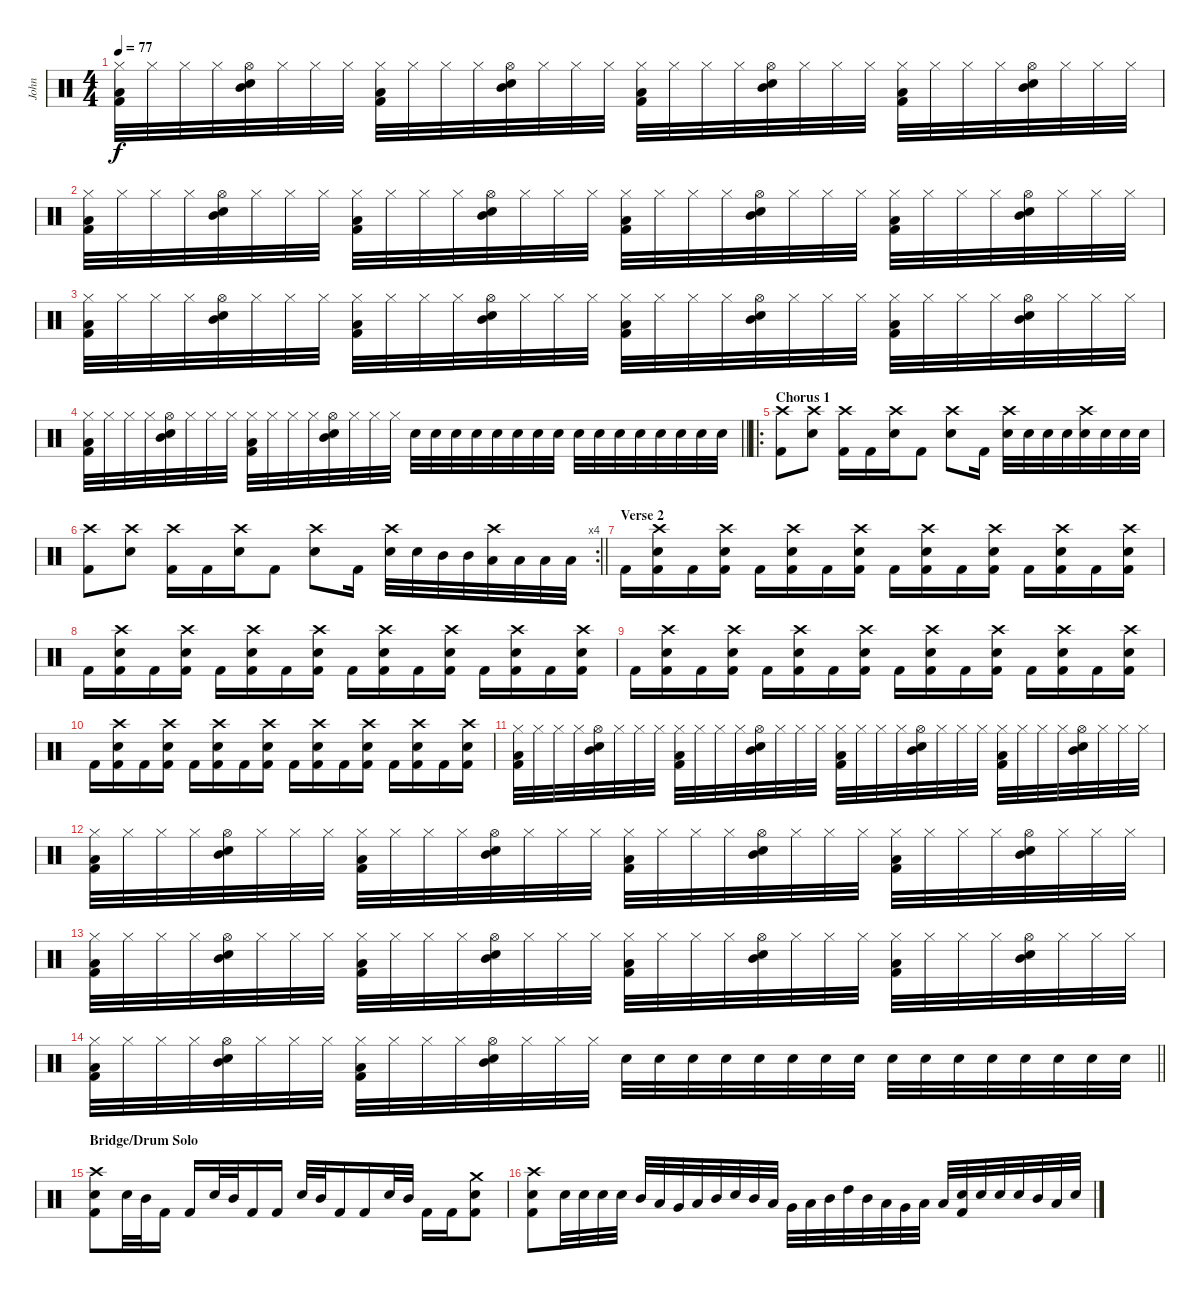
\track ("John" "John") {instrument percussion}
\staff {score}
\articulation defaults
\ts (4 4)
\tempo 77
\clef neutral
\ks c
("Hi-Hat (closed)" "Low Floor Tom (hit)" "Kick (hit) 2").32{dy f} "Hi-Hat (closed)".32 "Hi-Hat (closed)".32 "Hi-Hat (closed)".32 ("Hi-Hat (open)" "Mid Tom (hit)" "Electric Snare (hit)").32 "Hi-Hat (closed)".32 "Hi-Hat (closed)".32 "Hi-Hat (closed)".32 ("Hi-Hat (closed)" "Low Floor Tom (hit)" "Kick (hit) 2").32 "Hi-Hat (closed)".32 "Hi-Hat (closed)".32 "Hi-Hat (closed)".32 ("Hi-Hat (open)" "Mid Tom (hit)" "Electric Snare (hit)").32 "Hi-Hat (closed)".32 "Hi-Hat (closed)".32 "Hi-Hat (closed)".32 ("Hi-Hat (closed)" "Low Floor Tom (hit)" "Kick (hit) 2").32 "Hi-Hat (closed)".32 "Hi-Hat (closed)".32 "Hi-Hat (closed)".32 ("Hi-Hat (open)" "Mid Tom (hit)" "Electric Snare (hit)").32 "Hi-Hat (closed)".32 "Hi-Hat (closed)".32 "Hi-Hat (closed)".32 ("Hi-Hat (closed)" "Low Floor Tom (hit)" "Kick (hit) 2").32 "Hi-Hat (closed)".32 "Hi-Hat (closed)".32 "Hi-Hat (closed)".32 ("Hi-Hat (open)" "Mid Tom (hit)" "Electric Snare (hit)").32 "Hi-Hat (closed)".32 "Hi-Hat (closed)".32 "Hi-Hat (closed)".32 |
("Hi-Hat (closed)" "Low Floor Tom (hit)" "Kick (hit) 2").32 "Hi-Hat (closed)".32 "Hi-Hat (closed)".32 "Hi-Hat (closed)".32 ("Hi-Hat (open)" "Mid Tom (hit)" "Electric Snare (hit)").32 "Hi-Hat (closed)".32 "Hi-Hat (closed)".32 "Hi-Hat (closed)".32 ("Hi-Hat (closed)" "Low Floor Tom (hit)" "Kick (hit) 2").32 "Hi-Hat (closed)".32 "Hi-Hat (closed)".32 "Hi-Hat (closed)".32 ("Hi-Hat (open)" "Mid Tom (hit)" "Electric Snare (hit)").32 "Hi-Hat (closed)".32 "Hi-Hat (closed)".32 "Hi-Hat (closed)".32 ("Hi-Hat (closed)" "Low Floor Tom (hit)" "Kick (hit) 2").32 "Hi-Hat (closed)".32 "Hi-Hat (closed)".32 "Hi-Hat (closed)".32 ("Hi-Hat (open)" "Mid Tom (hit)" "Electric Snare (hit)").32 "Hi-Hat (closed)".32 "Hi-Hat (closed)".32 "Hi-Hat (closed)".32 ("Hi-Hat (closed)" "Low Floor Tom (hit)" "Kick (hit) 2").32 "Hi-Hat (closed)".32 "Hi-Hat (closed)".32 "Hi-Hat (closed)".32 ("Hi-Hat (open)" "Mid Tom (hit)" "Electric Snare (hit)").32 "Hi-Hat (closed)".32 "Hi-Hat (closed)".32 "Hi-Hat (closed)".32 |
("Hi-Hat (closed)" "Low Floor Tom (hit)" "Kick (hit) 2").32 "Hi-Hat (closed)".32 "Hi-Hat (closed)".32 "Hi-Hat (closed)".32 ("Hi-Hat (open)" "Mid Tom (hit)" "Electric Snare (hit)").32 "Hi-Hat (closed)".32 "Hi-Hat (closed)".32 "Hi-Hat (closed)".32 ("Hi-Hat (closed)" "Low Floor Tom (hit)" "Kick (hit) 2").32 "Hi-Hat (closed)".32 "Hi-Hat (closed)".32 "Hi-Hat (closed)".32 ("Hi-Hat (open)" "Mid Tom (hit)" "Electric Snare (hit)").32 "Hi-Hat (closed)".32 "Hi-Hat (closed)".32 "Hi-Hat (closed)".32 ("Hi-Hat (closed)" "Low Floor Tom (hit)" "Kick (hit) 2").32 "Hi-Hat (closed)".32 "Hi-Hat (closed)".32 "Hi-Hat (closed)".32 ("Hi-Hat (open)" "Mid Tom (hit)" "Electric Snare (hit)").32 "Hi-Hat (closed)".32 "Hi-Hat (closed)".32 "Hi-Hat (closed)".32 ("Hi-Hat (closed)" "Low Floor Tom (hit)" "Kick (hit) 2").32 "Hi-Hat (closed)".32 "Hi-Hat (closed)".32 "Hi-Hat (closed)".32 ("Hi-Hat (open)" "Mid Tom (hit)" "Electric Snare (hit)").32 "Hi-Hat (closed)".32 "Hi-Hat (closed)".32 "Hi-Hat (closed)".32 |
\barLineRight lightlight
("Hi-Hat (closed)" "Low Floor Tom (hit)" "Kick (hit) 2").32 "Hi-Hat (closed)".32 "Hi-Hat (closed)".32 "Hi-Hat (closed)".32 ("Hi-Hat (open)" "Mid Tom (hit)" "Electric Snare (hit)").32 "Hi-Hat (closed)".32 "Hi-Hat (closed)".32 "Hi-Hat (closed)".32 ("Hi-Hat (closed)" "Low Floor Tom (hit)" "Kick (hit) 2").32 "Hi-Hat (closed)".32 "Hi-Hat (closed)".32 "Hi-Hat (closed)".32 ("Hi-Hat (open)" "Mid Tom (hit)" "Electric Snare (hit)").32 "Hi-Hat (closed)".32 "Hi-Hat (closed)".32 "Hi-Hat (closed)".32 "Electric Snare (hit)".32 "Electric Snare (hit)".32 "Electric Snare (hit)".32 "Electric Snare (hit)".32 "Electric Snare (hit)".32 "Electric Snare (hit)".32 "Electric Snare (hit)".32 "Electric Snare (hit)".32 "Electric Snare (hit)".32 "Electric Snare (hit)".32 "Electric Snare (hit)".32 "Electric Snare (hit)".32 "Electric Snare (hit)".32 "Electric Snare (hit)".32 "Electric Snare (hit)".32 "Electric Snare (hit)".32 |
\ro
\section ("" "Chorus 1")
("Crash high (hit)" "Kick (hit) 2").8 ("Crash high (hit)" "Electric Snare (hit)").8 ("Crash high (hit)" "Kick (hit) 2").16 "Kick (hit) 2".16 ("Crash high (hit)" "Electric Snare (hit)").16 "Kick (hit) 2".8 ("Crash high (hit)" "Electric Snare (hit)").8 "Kick (hit) 2".16 ("Crash high (hit)" "Electric Snare (hit)").32 "Electric Snare (hit)".32 "Electric Snare (hit)".32 "Electric Snare (hit)".32 ("Crash high (hit)" "Electric Snare (hit)").32 "Electric Snare (hit)".32 "Electric Snare (hit)".32 "Electric Snare (hit)".32 |
\rc 4
\barLineRight lightlight
("Crash high (hit)" "Kick (hit) 2").8 ("Crash high (hit)" "Electric Snare (hit)").8 ("Crash high (hit)" "Kick (hit) 2").16 "Kick (hit) 2".16 ("Crash high (hit)" "Electric Snare (hit)").16 "Kick (hit) 2".8 ("Crash high (hit)" "Electric Snare (hit)").8 "Kick (hit) 2".16 ("Crash high (hit)" "Electric Snare (hit)").32 "Electric Snare (hit)".32 "Mid Tom (hit)".32 "Mid Tom (hit)".32 ("Crash high (hit)" "Low Tom (hit)").32 "Low Tom (hit)".32 "Low Floor Tom (hit)".32 "Low Floor Tom (hit)".32 |
\section ("" "Verse 2")
"Kick (hit) 2".16 ("Crash high (hit)" "Electric Snare (hit)" "Kick (hit) 2").16 "Kick (hit) 2".16 ("Crash high (hit)" "Electric Snare (hit)" "Kick (hit) 2").16 "Kick (hit) 2".16 ("Crash high (hit)" "Electric Snare (hit)" "Kick (hit) 2").16 "Kick (hit) 2".16 ("Crash high (hit)" "Electric Snare (hit)" "Kick (hit) 2").16 "Kick (hit) 2".16 ("Crash high (hit)" "Electric Snare (hit)" "Kick (hit) 2").16 "Kick (hit) 2".16 ("Crash high (hit)" "Electric Snare (hit)" "Kick (hit) 2").16 "Kick (hit) 2".16 ("Crash high (hit)" "Electric Snare (hit)" "Kick (hit) 2").16 "Kick (hit) 2".16 ("Crash high (hit)" "Electric Snare (hit)" "Kick (hit) 2").16 |
"Kick (hit) 2".16 ("Crash high (hit)" "Electric Snare (hit)" "Kick (hit) 2").16 "Kick (hit) 2".16 ("Crash high (hit)" "Electric Snare (hit)" "Kick (hit) 2").16 "Kick (hit) 2".16 ("Crash high (hit)" "Electric Snare (hit)" "Kick (hit) 2").16 "Kick (hit) 2".16 ("Crash high (hit)" "Electric Snare (hit)" "Kick (hit) 2").16 "Kick (hit) 2".16 ("Crash high (hit)" "Electric Snare (hit)" "Kick (hit) 2").16 "Kick (hit) 2".16 ("Crash high (hit)" "Electric Snare (hit)" "Kick (hit) 2").16 "Kick (hit) 2".16 ("Crash high (hit)" "Electric Snare (hit)" "Kick (hit) 2").16 "Kick (hit) 2".16 ("Crash high (hit)" "Electric Snare (hit)" "Kick (hit) 2").16 |
"Kick (hit) 2".16 ("Crash high (hit)" "Electric Snare (hit)" "Kick (hit) 2").16 "Kick (hit) 2".16 ("Crash high (hit)" "Electric Snare (hit)" "Kick (hit) 2").16 "Kick (hit) 2".16 ("Crash high (hit)" "Electric Snare (hit)" "Kick (hit) 2").16 "Kick (hit) 2".16 ("Crash high (hit)" "Electric Snare (hit)" "Kick (hit) 2").16 "Kick (hit) 2".16 ("Crash high (hit)" "Electric Snare (hit)" "Kick (hit) 2").16 "Kick (hit) 2".16 ("Crash high (hit)" "Electric Snare (hit)" "Kick (hit) 2").16 "Kick (hit) 2".16 ("Crash high (hit)" "Electric Snare (hit)" "Kick (hit) 2").16 "Kick (hit) 2".16 ("Crash high (hit)" "Electric Snare (hit)" "Kick (hit) 2").16 |
"Kick (hit) 2".16 ("Crash high (hit)" "Electric Snare (hit)" "Kick (hit) 2").16 "Kick (hit) 2".16 ("Crash high (hit)" "Electric Snare (hit)" "Kick (hit) 2").16 "Kick (hit) 2".16 ("Crash high (hit)" "Electric Snare (hit)" "Kick (hit) 2").16 "Kick (hit) 2".16 ("Crash high (hit)" "Electric Snare (hit)" "Kick (hit) 2").16 "Kick (hit) 2".16 ("Crash high (hit)" "Electric Snare (hit)" "Kick (hit) 2").16 "Kick (hit) 2".16 ("Crash high (hit)" "Electric Snare (hit)" "Kick (hit) 2").16 "Kick (hit) 2".16 ("Crash high (hit)" "Electric Snare (hit)" "Kick (hit) 2").16 "Kick (hit) 2".16 ("Crash high (hit)" "Electric Snare (hit)" "Kick (hit) 2").16 |
("Hi-Hat (closed)" "Low Floor Tom (hit)" "Kick (hit) 2").32 "Hi-Hat (closed)".32 "Hi-Hat (closed)".32 "Hi-Hat (closed)".32 ("Hi-Hat (open)" "Mid Tom (hit)" "Electric Snare (hit)").32 "Hi-Hat (closed)".32 "Hi-Hat (closed)".32 "Hi-Hat (closed)".32 ("Hi-Hat (closed)" "Low Floor Tom (hit)" "Kick (hit) 2").32 "Hi-Hat (closed)".32 "Hi-Hat (closed)".32 "Hi-Hat (closed)".32 ("Hi-Hat (open)" "Mid Tom (hit)" "Electric Snare (hit)").32 "Hi-Hat (closed)".32 "Hi-Hat (closed)".32 "Hi-Hat (closed)".32 ("Hi-Hat (closed)" "Low Floor Tom (hit)" "Kick (hit) 2").32 "Hi-Hat (closed)".32 "Hi-Hat (closed)".32 "Hi-Hat (closed)".32 ("Hi-Hat (open)" "Mid Tom (hit)" "Electric Snare (hit)").32 "Hi-Hat (closed)".32 "Hi-Hat (closed)".32 "Hi-Hat (closed)".32 ("Hi-Hat (closed)" "Low Floor Tom (hit)" "Kick (hit) 2").32 "Hi-Hat (closed)".32 "Hi-Hat (closed)".32 "Hi-Hat (closed)".32 ("Hi-Hat (open)" "Mid Tom (hit)" "Electric Snare (hit)").32 "Hi-Hat (closed)".32 "Hi-Hat (closed)".32 "Hi-Hat (closed)".32 |
("Hi-Hat (closed)" "Low Floor Tom (hit)" "Kick (hit) 2").32 "Hi-Hat (closed)".32 "Hi-Hat (closed)".32 "Hi-Hat (closed)".32 ("Hi-Hat (open)" "Mid Tom (hit)" "Electric Snare (hit)").32 "Hi-Hat (closed)".32 "Hi-Hat (closed)".32 "Hi-Hat (closed)".32 ("Hi-Hat (closed)" "Low Floor Tom (hit)" "Kick (hit) 2").32 "Hi-Hat (closed)".32 "Hi-Hat (closed)".32 "Hi-Hat (closed)".32 ("Hi-Hat (open)" "Mid Tom (hit)" "Electric Snare (hit)").32 "Hi-Hat (closed)".32 "Hi-Hat (closed)".32 "Hi-Hat (closed)".32 ("Hi-Hat (closed)" "Low Floor Tom (hit)" "Kick (hit) 2").32 "Hi-Hat (closed)".32 "Hi-Hat (closed)".32 "Hi-Hat (closed)".32 ("Hi-Hat (open)" "Mid Tom (hit)" "Electric Snare (hit)").32 "Hi-Hat (closed)".32 "Hi-Hat (closed)".32 "Hi-Hat (closed)".32 ("Hi-Hat (closed)" "Low Floor Tom (hit)" "Kick (hit) 2").32 "Hi-Hat (closed)".32 "Hi-Hat (closed)".32 "Hi-Hat (closed)".32 ("Hi-Hat (open)" "Mid Tom (hit)" "Electric Snare (hit)").32 "Hi-Hat (closed)".32 "Hi-Hat (closed)".32 "Hi-Hat (closed)".32 |
("Hi-Hat (closed)" "Low Floor Tom (hit)" "Kick (hit) 2").32 "Hi-Hat (closed)".32 "Hi-Hat (closed)".32 "Hi-Hat (closed)".32 ("Hi-Hat (open)" "Mid Tom (hit)" "Electric Snare (hit)").32 "Hi-Hat (closed)".32 "Hi-Hat (closed)".32 "Hi-Hat (closed)".32 ("Hi-Hat (closed)" "Low Floor Tom (hit)" "Kick (hit) 2").32 "Hi-Hat (closed)".32 "Hi-Hat (closed)".32 "Hi-Hat (closed)".32 ("Hi-Hat (open)" "Mid Tom (hit)" "Electric Snare (hit)").32 "Hi-Hat (closed)".32 "Hi-Hat (closed)".32 "Hi-Hat (closed)".32 ("Hi-Hat (closed)" "Low Floor Tom (hit)" "Kick (hit) 2").32 "Hi-Hat (closed)".32 "Hi-Hat (closed)".32 "Hi-Hat (closed)".32 ("Hi-Hat (open)" "Mid Tom (hit)" "Electric Snare (hit)").32 "Hi-Hat (closed)".32 "Hi-Hat (closed)".32 "Hi-Hat (closed)".32 ("Hi-Hat (closed)" "Low Floor Tom (hit)" "Kick (hit) 2").32 "Hi-Hat (closed)".32 "Hi-Hat (closed)".32 "Hi-Hat (closed)".32 ("Hi-Hat (open)" "Mid Tom (hit)" "Electric Snare (hit)").32 "Hi-Hat (closed)".32 "Hi-Hat (closed)".32 "Hi-Hat (closed)".32 |
\barLineRight lightlight
("Hi-Hat (closed)" "Low Floor Tom (hit)" "Kick (hit) 2").32 "Hi-Hat (closed)".32 "Hi-Hat (closed)".32 "Hi-Hat (closed)".32 ("Hi-Hat (open)" "Mid Tom (hit)" "Electric Snare (hit)").32 "Hi-Hat (closed)".32 "Hi-Hat (closed)".32 "Hi-Hat (closed)".32 ("Hi-Hat (closed)" "Low Floor Tom (hit)" "Kick (hit) 2").32 "Hi-Hat (closed)".32 "Hi-Hat (closed)".32 "Hi-Hat (closed)".32 ("Hi-Hat (open)" "Mid Tom (hit)" "Electric Snare (hit)").32 "Hi-Hat (closed)".32 "Hi-Hat (closed)".32 "Hi-Hat (closed)".32 "Electric Snare (hit)".32 "Electric Snare (hit)".32 "Electric Snare (hit)".32 "Electric Snare (hit)".32 "Electric Snare (hit)".32 "Electric Snare (hit)".32 "Electric Snare (hit)".32 "Electric Snare (hit)".32 "Electric Snare (hit)".32 "Electric Snare (hit)".32 "Electric Snare (hit)".32 "Electric Snare (hit)".32 "Electric Snare (hit)".32 "Electric Snare (hit)".32 "Electric Snare (hit)".32 "Electric Snare (hit)".32 |
\section ("" "Bridge/Drum Solo")
("Crash high (hit)" "Electric Snare (hit)" "Kick (hit) 2").8 "Electric Snare (hit)".32 "Mid Tom (hit)".32 "Kick (hit) 2".16 "Kick (hit) 2".16 "Electric Snare (hit)".32 "Mid Tom (hit)".32 "Kick (hit) 2".16 "Kick (hit) 2".16 "Electric Snare (hit)".32 "Mid Tom (hit)".32 "Kick (hit) 2".16 "Kick (hit) 2".16 "Electric Snare (hit)".32 "Mid Tom (hit)".32 "Kick (hit) 2".16 "Kick (hit) 2".16 ("Crash medium (hit)" "Electric Snare (hit)" "Kick (hit) 2").8 |
("Crash high (hit)" "Electric Snare (hit)" "Kick (hit) 2").8 "Electric Snare (hit)".32 "Electric Snare (hit)".32 "Electric Snare (hit)".32 "Electric Snare (hit)".32 "Mid Tom (hit)".32 "Low Tom (hit)".32 "Very Low Tom (hit)".32 "Low Tom (hit)".32 "Mid Tom (hit)".32 "Electric Snare (hit)".32 "Mid Tom (hit)".32 "Low Tom (hit)".32 "Very Low Tom (hit)".32 "Low Tom (hit)".32 "Mid Tom (hit)".32 "High Tom (hit)".32 "Mid Tom (hit)".32 "Low Tom (hit)".32 "Very Low Tom (hit)".32 "Low Floor Tom (hit)".32 "Low Tom (hit)".32 ("Electric Snare (hit)" "Kick (hit) 2").32 "Electric Snare (hit)".32 "Electric Snare (hit)".32 "Electric Snare (hit)".32 "Mid Tom (hit)".32 "Low Tom (hit)".32 "Electric Snare (hit)".32
